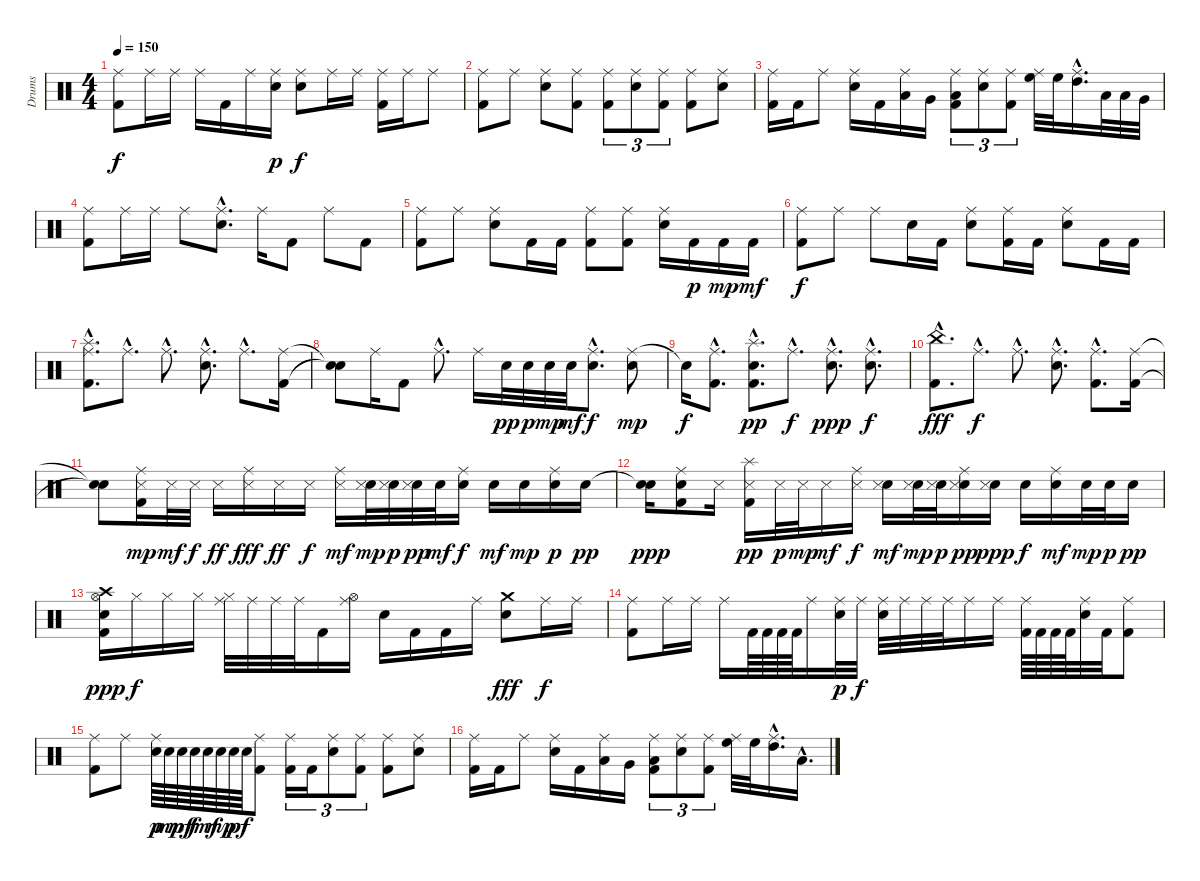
\track ("Drums" "Drums") {instrument percussion}
\staff {score}
\articulation defaults
\ts (4 4)
\tempo 150
\clef neutral
\ks c
("Ride (middle)" "Kick (hit) 2").8{dy f} "Ride (middle)".16 "Ride (middle)".16 "Ride (middle)".16 "Kick (hit) 2".16 "Ride (middle)".16 ("Ride (middle)" "Electric Snare (hit)").16{dy p} ("Ride (middle)" "Electric Snare (hit)").8{dy f} "Ride (middle)".16 "Ride (middle)".16 ("Ride (middle)" "Kick (hit) 2").16 "Ride (middle)".16 "Ride (middle)".8 |
("Ride (middle)" "Kick (hit) 2").8 "Ride (middle)".8 ("Ride (middle)" "Electric Snare (hit)").8 ("Ride (middle)" "Kick (hit) 2").8 ("Ride (middle)" "Kick (hit) 2").8{tu (3 2)} ("Ride (middle)" "Electric Snare (hit)").8{tu (3 2)} ("Ride (middle)" "Kick (hit) 2").8{tu (3 2)} ("Ride (middle)" "Kick (hit) 2").8 ("Ride (middle)" "Electric Snare (hit)").8 |
("Ride (middle)" "Kick (hit) 2").16 "Kick (hit) 2".16 "Ride (middle)".8 ("Ride (middle)" "Electric Snare (hit)").16 "Kick (hit) 2".16 ("Ride (middle)" "Low Tom (hit)").16 "Very Low Tom (hit)".16 ("Ride (middle)" "Low Tom (hit)" "Kick (hit) 2").8{tu (3 2)} ("Ride (middle)" "Electric Snare (hit)").8{tu (3 2)} ("Ride (middle)" "Kick (hit) 2").8{tu (3 2)} ("Ride (middle)" "High Floor Tom (hit)").32 "High Floor Tom (hit)".32 ("Ride (middle)"{hac} "High Tom (hit)"{hac}).16{d} "Low Tom (hit)".32 "Low Tom (hit)".32 "Very Low Tom (hit)".32 |
("Ride (middle)" "Kick (hit) 2").8 "Ride (middle)".16 "Ride (middle)".16 "Ride (middle)".8 ("Ride (middle)"{hac} "Electric Snare (hit)"{hac}).8{d} "Ride (middle)".16 "Kick (hit) 2".8 "Ride (middle)".8 "Kick (hit) 2".8 |
("Ride (middle)" "Kick (hit) 2").8 "Ride (middle)".8 ("Ride (middle)" "Electric Snare (hit)").8 "Kick (hit) 2".16 "Kick (hit) 2".16 ("Ride (middle)" "Kick (hit) 2").8 ("Ride (middle)" "Kick (hit) 2").8 ("Ride (middle)" "Electric Snare (hit)").16 "Kick (hit) 2".16{dy p} "Kick (hit) 2".16{dy mp} "Kick (hit) 2".16{dy mf} |
("Ride (middle)" "Kick (hit) 2").8{dy f} "Ride (middle)".8 "Ride (middle)".8 "Electric Snare (hit)".16 "Kick (hit) 2".16 ("Ride (middle)" "Electric Snare (hit)").8 ("Ride (middle)" "Kick (hit) 2").16 "Kick (hit) 2".16 ("Ride (middle)" "Electric Snare (hit)").8 "Kick (hit) 2".16 "Kick (hit) 2".16 |
("Splash (hit)"{hac} "Ride (middle)"{hac} "Kick (hit) 2"{hac}).8{d} "Ride (middle)"{hac}.8{d} "Ride (middle)"{hac}.8{d} ("Ride (middle)"{hac} "Electric Snare (hit)"{hac}).8{d} "Ride (middle)"{hac}.8{d} ("Ride (middle)" "Kick (hit) 2").16 |
("Snare (hit)"{t} "Snare (hit)"{t}).8 "Ride (middle)".16 "Kick (hit) 2".8 "Ride (middle)"{hac}.8{d} "Ride (middle)".16 "Electric Snare (hit)".32{dy pp} "Electric Snare (hit)".32{dy p} "Electric Snare (hit)".32{dy mp} "Electric Snare (hit)".32{dy mf} ("Ride (middle)"{hac} "Electric Snare (hit)"{hac}).8{d dy f} ("Ride (middle)" "Electric Snare (hit)").8{dy mp} |
"Snare (hit)"{t}.16{dy f} ("Ride (middle)"{hac} "Kick (hit) 2"{hac}).8{d} ("Splash (hit)"{hac} "Electric Snare (hit)"{hac} "Kick (hit) 2"{hac}).8{d dy pp} "Ride (middle)"{hac}.8{d dy f} ("Ride (middle)"{hac} "Electric Snare (hit)"{hac}).8{d dy ppp} ("Ride (middle)"{hac} "Electric Snare (hit)"{hac}).8{d dy f} |
("China (hit)"{hac} "Kick (hit) 2"{hac}).8{d dy fff} "Ride (middle)"{hac}.8{d dy f} "Ride (middle)"{hac}.8{d} ("Ride (middle)"{hac} "Electric Snare (hit)"{hac}).8{d} ("Ride (middle)"{hac} "Kick (hit) 2"{hac}).8{d} ("Ride (middle)" "Kick (hit) 2").16 |
("Snare (hit)"{t} "Snare (hit)"{t}).8 ("Ride (middle)" "Snare (side stick) 3" "Kick (hit) 2").16{dy mp} "Snare (side stick) 3".32{dy mf} "Snare (side stick) 3".32{dy f} "Snare (side stick) 3".16{dy ff} ("Ride (middle)" "Snare (side stick) 3").16{dy fff} "Snare (side stick) 3".16{dy ff} "Snare (side stick) 3".16{dy f} ("Ride (middle)" "Snare (side stick) 3").16{dy mf} ("Electric Snare (hit)" "Snare (side stick) 3").32{dy mp} ("Electric Snare (hit)" "Snare (side stick) 3").32{dy p} ("Electric Snare (hit)" "Snare (side stick) 3").32{dy pp} "Electric Snare (hit)".32{dy mf} ("Ride (middle)" "Electric Snare (hit)").16{dy f} "Electric Snare (hit)".16{dy mf} "Electric Snare (hit)".16{dy mp} ("Ride (middle)" "Electric Snare (hit)").16{dy p} "Electric Snare (hit)".16{dy pp} |
("Snare (hit)"{t} "Electric Snare (hit)").16{dy ppp} ("Ride (middle)" "Electric Snare (hit)" "Kick (hit) 2").8 "Snare (side stick) 3".16 ("Splash (hit)" "Snare (side stick) 3" "Kick (hit) 2").16{dy pp} "Snare (side stick) 3".32{dy p} "Snare (side stick) 3".32{dy mp} "Snare (side stick) 3".16{dy mf} ("Ride (middle)" "Snare (side stick) 3").16{dy f} ("Electric Snare (hit)" "Snare (side stick) 3").16{dy mf} ("Electric Snare (hit)" "Snare (side stick) 3").32{dy mp} ("Electric Snare (hit)" "Snare (side stick) 3").32{dy p} ("Ride (middle)" "Electric Snare (hit)" "Snare (side stick) 3").16{dy pp} ("Electric Snare (hit)" "Snare (side stick) 3").16{dy ppp} "Electric Snare (hit)".16{dy f} ("Ride (middle)" "Electric Snare (hit)").16{dy mf} "Electric Snare (hit)".32{dy mp} "Electric Snare (hit)".32{dy p} "Electric Snare (hit)".16{dy pp} |
("Crash high (hit)" "Electric Snare (hit)" "Hi-Hat (open)" "Kick (hit) 2").16{dy ppp} "Hi-Hat (closed)".16{dy f} "Hi-Hat (closed)".16 "Hi-Hat (closed)".16 ("Ride (middle)" "Hi-Hat (closed)").32 "Ride (middle)".32 "Ride (middle)".32 "Ride (middle)".32 "Kick (hit) 2".16 ("Ride (middle)" "Hi-Hat (open)").16 "Electric Snare (hit)".16 "Kick (hit) 2".16 "Kick (hit) 2".16 "Ride (middle)".16 ("Crash medium (hit)" "Electric Snare (hit)").8{dy fff} "Ride (middle)".16{dy f} "Ride (middle)".16 |
("Ride (middle)" "Kick (hit) 2").8 "Ride (middle)".16 "Ride (middle)".16 "Ride (middle)".16 "Kick (hit) 2".64 "Kick (hit) 2".64 "Kick (hit) 2".64 "Kick (hit) 2".64 "Ride (middle)".16 ("Ride (middle)" "Electric Snare (hit)").32{dy p} "Ride (middle)".32{dy f} ("Ride (middle)" "Electric Snare (hit)").32 "Ride (middle)".32 "Ride (middle)".32 "Ride (middle)".32 "Ride (middle)".16 "Ride (middle)".16 ("Ride (middle)" "Kick (hit) 2").64 "Kick (hit) 2".64 "Kick (hit) 2".64 "Kick (hit) 2".64 ("Ride (middle)" "Electric Snare (hit)").32 "Kick (hit) 2".32 ("Ride (middle)" "Kick (hit) 2").8 |
("Ride (middle)" "Kick (hit) 2").8 "Ride (middle)".8 ("Ride (middle)" "Electric Snare (hit)").64{dy p} "Electric Snare (hit)".64{dy mp} "Electric Snare (hit)".64{dy mf} "Electric Snare (hit)".64{dy f} "Electric Snare (hit)".64{dy mf} "Electric Snare (hit)".64{dy mp} "Electric Snare (hit)".64{dy p} "Electric Snare (hit)".64{dy f} ("Ride (middle)" "Kick (hit) 2").8 ("Ride (middle)" "Kick (hit) 2").16{tu (3 2)} "Kick (hit) 2".16{tu (3 2)} ("Ride (middle)" "Electric Snare (hit)").8{tu (3 2)} ("Ride (middle)" "Kick (hit) 2").8{tu (3 2)} ("Ride (middle)" "Kick (hit) 2").8 ("Ride (middle)" "Electric Snare (hit)").8 |
("Ride (middle)" "Kick (hit) 2").16 "Kick (hit) 2".16 "Ride (middle)".8 ("Ride (middle)" "Electric Snare (hit)").16 "Kick (hit) 2".16 ("Ride (middle)" "Low Tom (hit)").16 "Very Low Tom (hit)".16 ("Ride (middle)" "Low Tom (hit)" "Kick (hit) 2").8{tu (3 2)} ("Ride (middle)" "Electric Snare (hit)").8{tu (3 2)} ("Ride (middle)" "Kick (hit) 2").8{tu (3 2)} ("Ride (middle)" "High Floor Tom (hit)").32 "High Floor Tom (hit)".32 ("Ride (middle)"{hac} "High Tom (hit)"{hac}).16{d} "Low Tom (hit)"{hac}.16{d}
